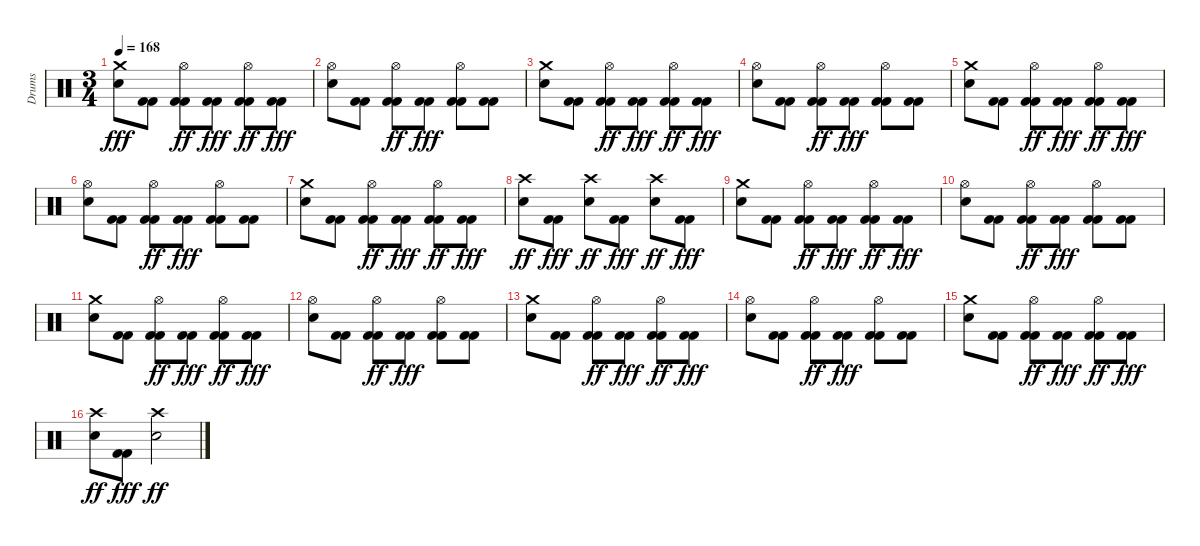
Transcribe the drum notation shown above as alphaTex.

\track ("Drums" "Drums") {instrument percussion}
\staff {score}
\articulation defaults
\ts (3 4)
\tempo 168
\clef neutral
\ks c
("Crash medium (hit)" "Electric Snare (hit)").8{dy fff} ("Kick (hit) 2" "Kick (hit) 2").8 ("Kick (hit) 2" "Kick (hit) 2" "Hi-Hat (open)").8{dy ff} ("Kick (hit) 2" "Kick (hit) 2").8{dy fff} ("Kick (hit) 2" "Kick (hit) 2" "Hi-Hat (open)").8{dy ff} ("Kick (hit) 2" "Kick (hit) 2").8{dy fff} |
("Electric Snare (hit)" "Hi-Hat (open)").8 ("Kick (hit) 2" "Kick (hit) 2").8 ("Kick (hit) 2" "Kick (hit) 2" "Hi-Hat (open)").8{dy ff} ("Kick (hit) 2" "Kick (hit) 2").8{dy fff} ("Hi-Hat (open)" "Kick (hit) 2" "Kick (hit) 2").8 ("Kick (hit) 2" "Kick (hit) 2").8 |
("Crash medium (hit)" "Electric Snare (hit)").8 ("Kick (hit) 2" "Kick (hit) 2").8 ("Kick (hit) 2" "Kick (hit) 2" "Hi-Hat (open)").8{dy ff} ("Kick (hit) 2" "Kick (hit) 2").8{dy fff} ("Kick (hit) 2" "Kick (hit) 2" "Hi-Hat (open)").8{dy ff} ("Kick (hit) 2" "Kick (hit) 2").8{dy fff} |
("Electric Snare (hit)" "Hi-Hat (open)").8 ("Kick (hit) 2" "Kick (hit) 2").8 ("Kick (hit) 2" "Kick (hit) 2" "Hi-Hat (open)").8{dy ff} ("Kick (hit) 2" "Kick (hit) 2").8{dy fff} ("Hi-Hat (open)" "Kick (hit) 2" "Kick (hit) 2").8 ("Kick (hit) 2" "Kick (hit) 2").8 |
("Crash medium (hit)" "Electric Snare (hit)").8 ("Kick (hit) 2" "Kick (hit) 2").8 ("Kick (hit) 2" "Kick (hit) 2" "Hi-Hat (open)").8{dy ff} ("Kick (hit) 2" "Kick (hit) 2").8{dy fff} ("Kick (hit) 2" "Kick (hit) 2" "Hi-Hat (open)").8{dy ff} ("Kick (hit) 2" "Kick (hit) 2").8{dy fff} |
("Electric Snare (hit)" "Hi-Hat (open)").8 ("Kick (hit) 2" "Kick (hit) 2").8 ("Kick (hit) 2" "Kick (hit) 2" "Hi-Hat (open)").8{dy ff} ("Kick (hit) 2" "Kick (hit) 2").8{dy fff} ("Hi-Hat (open)" "Kick (hit) 2" "Kick (hit) 2").8 ("Kick (hit) 2" "Kick (hit) 2").8 |
("Crash medium (hit)" "Electric Snare (hit)").8 ("Kick (hit) 2" "Kick (hit) 2").8 ("Kick (hit) 2" "Kick (hit) 2" "Hi-Hat (open)").8{dy ff} ("Kick (hit) 2" "Kick (hit) 2").8{dy fff} ("Kick (hit) 2" "Kick (hit) 2" "Hi-Hat (open)").8{dy ff} ("Kick (hit) 2" "Kick (hit) 2").8{dy fff} |
("Electric Snare (hit)" "Crash high (hit)").8{dy ff} ("Kick (hit) 2" "Kick (hit) 2").8{dy fff} ("Electric Snare (hit)" "Crash high (hit)").8{dy ff} ("Kick (hit) 2" "Kick (hit) 2").8{dy fff} ("Electric Snare (hit)" "Crash high (hit)").8{dy ff} ("Kick (hit) 2" "Kick (hit) 2").8{dy fff} |
("Crash medium (hit)" "Electric Snare (hit)").8 ("Kick (hit) 2" "Kick (hit) 2").8 ("Kick (hit) 2" "Kick (hit) 2" "Hi-Hat (open)").8{dy ff} ("Kick (hit) 2" "Kick (hit) 2").8{dy fff} ("Kick (hit) 2" "Kick (hit) 2" "Hi-Hat (open)").8{dy ff} ("Kick (hit) 2" "Kick (hit) 2").8{dy fff} |
("Electric Snare (hit)" "Hi-Hat (open)").8 ("Kick (hit) 2" "Kick (hit) 2").8 ("Kick (hit) 2" "Kick (hit) 2" "Hi-Hat (open)").8{dy ff} ("Kick (hit) 2" "Kick (hit) 2").8{dy fff} ("Hi-Hat (open)" "Kick (hit) 2" "Kick (hit) 2").8 ("Kick (hit) 2" "Kick (hit) 2").8 |
("Crash medium (hit)" "Electric Snare (hit)").8 ("Kick (hit) 2" "Kick (hit) 2").8 ("Kick (hit) 2" "Kick (hit) 2" "Hi-Hat (open)").8{dy ff} ("Kick (hit) 2" "Kick (hit) 2").8{dy fff} ("Kick (hit) 2" "Kick (hit) 2" "Hi-Hat (open)").8{dy ff} ("Kick (hit) 2" "Kick (hit) 2").8{dy fff} |
("Electric Snare (hit)" "Hi-Hat (open)").8 ("Kick (hit) 2" "Kick (hit) 2").8 ("Kick (hit) 2" "Kick (hit) 2" "Hi-Hat (open)").8{dy ff} ("Kick (hit) 2" "Kick (hit) 2").8{dy fff} ("Hi-Hat (open)" "Kick (hit) 2" "Kick (hit) 2").8 ("Kick (hit) 2" "Kick (hit) 2").8 |
("Crash medium (hit)" "Electric Snare (hit)").8 ("Kick (hit) 2" "Kick (hit) 2").8 ("Kick (hit) 2" "Kick (hit) 2" "Hi-Hat (open)").8{dy ff} ("Kick (hit) 2" "Kick (hit) 2").8{dy fff} ("Kick (hit) 2" "Kick (hit) 2" "Hi-Hat (open)").8{dy ff} ("Kick (hit) 2" "Kick (hit) 2").8{dy fff} |
("Electric Snare (hit)" "Hi-Hat (open)").8 ("Kick (hit) 2" "Kick (hit) 2").8 ("Kick (hit) 2" "Kick (hit) 2" "Hi-Hat (open)").8{dy ff} ("Kick (hit) 2" "Kick (hit) 2").8{dy fff} ("Hi-Hat (open)" "Kick (hit) 2" "Kick (hit) 2").8 ("Kick (hit) 2" "Kick (hit) 2").8 |
("Crash medium (hit)" "Electric Snare (hit)").8 ("Kick (hit) 2" "Kick (hit) 2").8 ("Kick (hit) 2" "Kick (hit) 2" "Hi-Hat (open)").8{dy ff} ("Kick (hit) 2" "Kick (hit) 2").8{dy fff} ("Kick (hit) 2" "Kick (hit) 2" "Hi-Hat (open)").8{dy ff} ("Kick (hit) 2" "Kick (hit) 2").8{dy fff} |
("Electric Snare (hit)" "Crash high (hit)").8{dy ff} ("Kick (hit) 2" "Kick (hit) 2").8{dy fff} ("Electric Snare (hit)" "Crash high (hit)").2{dy ff}
